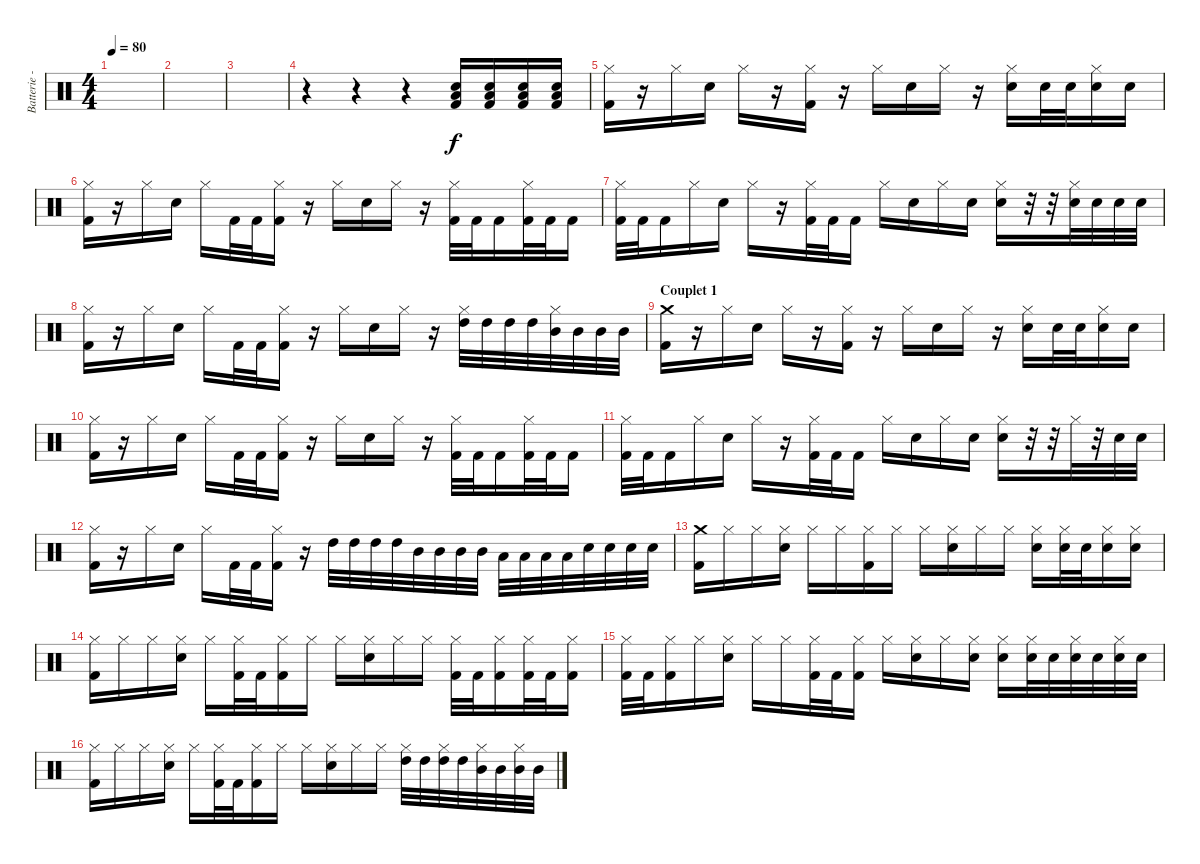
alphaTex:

\track ("Batterie - François" "Batterie -") {instrument percussion}
\staff {score}
\articulation defaults
\ts (4 4)
\tempo 80
\clef neutral
\ks c
|
|
|
r.4 r.4 r.4 ("Electric Snare (hit)" "Low Tom (hit)" "Kick (hit) 2").16 ("Electric Snare (hit)" "Low Tom (hit)" "Kick (hit) 2").16 ("Electric Snare (hit)" "Low Tom (hit)" "Kick (hit) 2").16 ("Electric Snare (hit)" "Low Tom (hit)" "Kick (hit) 2").16 |
("Hi-Hat (closed)" "Kick (hit) 2").16 r.16 "Hi-Hat (closed)".16 "Electric Snare (hit)".16 "Hi-Hat (closed)".16 r.16 ("Hi-Hat (closed)" "Kick (hit) 2").16 r.16 "Hi-Hat (closed)".16 "Electric Snare (hit)".16 "Hi-Hat (closed)".16 r.16 ("Hi-Hat (closed)" "Electric Snare (hit)").16 "Electric Snare (hit)".32 "Electric Snare (hit)".32 ("Hi-Hat (closed)" "Electric Snare (hit)").16 "Electric Snare (hit)".16 |
("Hi-Hat (closed)" "Kick (hit) 2").16 r.16 "Hi-Hat (closed)".16 "Electric Snare (hit)".16 "Hi-Hat (closed)".16 "Kick (hit) 2".32 "Kick (hit) 2".32 ("Hi-Hat (closed)" "Kick (hit) 2").16 r.16 "Hi-Hat (closed)".16 "Electric Snare (hit)".16 "Hi-Hat (closed)".16 r.16 ("Hi-Hat (closed)" "Kick (hit) 2").32 "Kick (hit) 2".32 "Kick (hit) 2".16 ("Hi-Hat (closed)" "Kick (hit) 2").32 "Kick (hit) 2".32 "Kick (hit) 2".16 |
("Hi-Hat (closed)" "Kick (hit) 2").32 "Kick (hit) 2".32 "Kick (hit) 2".16 "Hi-Hat (closed)".16 "Electric Snare (hit)".16 "Hi-Hat (closed)".16 r.16 ("Hi-Hat (closed)" "Kick (hit) 2").32 "Kick (hit) 2".32 "Kick (hit) 2".16 "Hi-Hat (closed)".16 "Electric Snare (hit)".16 "Hi-Hat (closed)".16 "Electric Snare (hit)".16 ("Hi-Hat (closed)" "Electric Snare (hit)").16 r.32 r.32 ("Hi-Hat (closed)" "Electric Snare (hit)").32 "Electric Snare (hit)".32 "Electric Snare (hit)".32 "Electric Snare (hit)".32 |
("Hi-Hat (closed)" "Kick (hit) 2").16 r.16 "Hi-Hat (closed)".16 "Electric Snare (hit)".16 "Hi-Hat (closed)".16 "Kick (hit) 2".32 "Kick (hit) 2".32 ("Hi-Hat (closed)" "Kick (hit) 2").16 r.16 "Hi-Hat (closed)".16 "Electric Snare (hit)".16 "Hi-Hat (closed)".16 r.16 ("Hi-Hat (closed)" "High Tom (hit)").32 "High Tom (hit)".32 "High Tom (hit)".32 "High Tom (hit)".32 ("Hi-Hat (closed)" "Mid Tom (hit)").32 "Mid Tom (hit)".32 "Mid Tom (hit)".32 "Mid Tom (hit)".32 |
\section ("" "Couplet 1")
("Crash medium (hit)" "Kick (hit) 2").16 r.16 "Hi-Hat (closed)".16 "Electric Snare (hit)".16 "Hi-Hat (closed)".16 r.16 ("Hi-Hat (closed)" "Kick (hit) 2").16 r.16 "Hi-Hat (closed)".16 "Electric Snare (hit)".16 "Hi-Hat (closed)".16 r.16 ("Hi-Hat (closed)" "Electric Snare (hit)").16 "Electric Snare (hit)".32 "Electric Snare (hit)".32 ("Hi-Hat (closed)" "Electric Snare (hit)").16 "Electric Snare (hit)".16 |
("Hi-Hat (closed)" "Kick (hit) 2").16 r.16 "Hi-Hat (closed)".16 "Electric Snare (hit)".16 "Hi-Hat (closed)".16 "Kick (hit) 2".32 "Kick (hit) 2".32 ("Hi-Hat (closed)" "Kick (hit) 2").16 r.16 "Hi-Hat (closed)".16 "Electric Snare (hit)".16 "Hi-Hat (closed)".16 r.16 ("Hi-Hat (closed)" "Kick (hit) 2").32 "Kick (hit) 2".32 "Kick (hit) 2".16 ("Hi-Hat (closed)" "Kick (hit) 2").32 "Kick (hit) 2".32 "Kick (hit) 2".16 |
("Hi-Hat (closed)" "Kick (hit) 2").32 "Kick (hit) 2".32 "Kick (hit) 2".16 "Hi-Hat (closed)".16 "Electric Snare (hit)".16 "Hi-Hat (closed)".16 r.16 ("Hi-Hat (closed)" "Kick (hit) 2").32 "Kick (hit) 2".32 "Kick (hit) 2".16 "Hi-Hat (closed)".16 "Electric Snare (hit)".16 "Hi-Hat (closed)".16 "Electric Snare (hit)".16 ("Hi-Hat (closed)" "Electric Snare (hit)").16 r.32 r.32 "Hi-Hat (closed)".32 r.32 "Electric Snare (hit)".32 "Electric Snare (hit)".32 |
("Hi-Hat (closed)" "Kick (hit) 2").16 r.16 "Hi-Hat (closed)".16 "Electric Snare (hit)".16 "Hi-Hat (closed)".16 "Kick (hit) 2".32 "Kick (hit) 2".32 ("Hi-Hat (closed)" "Kick (hit) 2").16 r.16 "High Tom (hit)".32 "High Tom (hit)".32 "High Tom (hit)".32 "High Tom (hit)".32 "Mid Tom (hit)".32 "Mid Tom (hit)".32 "Mid Tom (hit)".32 "Mid Tom (hit)".32 "Low Tom (hit)".32 "Low Tom (hit)".32 "Low Tom (hit)".32 "Low Tom (hit)".32 "Electric Snare (hit)".32 "Electric Snare (hit)".32 "Electric Snare (hit)".32 "Electric Snare (hit)".32 |
("Crash medium (hit)" "Kick (hit) 2").16 "Hi-Hat (closed)".16 "Hi-Hat (closed)".16 ("Hi-Hat (closed)" "Electric Snare (hit)").16 "Hi-Hat (closed)".16 "Hi-Hat (closed)".16 ("Hi-Hat (closed)" "Kick (hit) 2").16 "Hi-Hat (closed)".16 "Hi-Hat (closed)".16 ("Hi-Hat (closed)" "Electric Snare (hit)").16 "Hi-Hat (closed)".16 "Hi-Hat (closed)".16 ("Hi-Hat (closed)" "Electric Snare (hit)").16 ("Hi-Hat (closed)" "Electric Snare (hit)").32 "Electric Snare (hit)".32 ("Hi-Hat (closed)" "Electric Snare (hit)").16 ("Hi-Hat (closed)" "Electric Snare (hit)").16 |
("Hi-Hat (closed)" "Kick (hit) 2").16 "Hi-Hat (closed)".16 "Hi-Hat (closed)".16 ("Hi-Hat (closed)" "Electric Snare (hit)").16 "Hi-Hat (closed)".16 ("Hi-Hat (closed)" "Kick (hit) 2").32 "Kick (hit) 2".32 ("Hi-Hat (closed)" "Kick (hit) 2").16 "Hi-Hat (closed)".16 "Hi-Hat (closed)".16 ("Hi-Hat (closed)" "Electric Snare (hit)").16 "Hi-Hat (closed)".16 "Hi-Hat (closed)".16 ("Hi-Hat (closed)" "Kick (hit) 2").32 "Kick (hit) 2".32 ("Hi-Hat (closed)" "Kick (hit) 2").16 ("Hi-Hat (closed)" "Kick (hit) 2").32 "Kick (hit) 2".32 ("Hi-Hat (closed)" "Kick (hit) 2").16 |
("Hi-Hat (closed)" "Kick (hit) 2").32 "Kick (hit) 2".32 ("Hi-Hat (closed)" "Kick (hit) 2").16 "Hi-Hat (closed)".16 ("Hi-Hat (closed)" "Electric Snare (hit)").16 "Hi-Hat (closed)".16 "Hi-Hat (closed)".16 ("Hi-Hat (closed)" "Kick (hit) 2").32 "Kick (hit) 2".32 ("Hi-Hat (closed)" "Kick (hit) 2").16 "Hi-Hat (closed)".16 ("Hi-Hat (closed)" "Electric Snare (hit)").16 "Hi-Hat (closed)".16 ("Hi-Hat (closed)" "Electric Snare (hit)").16 ("Hi-Hat (closed)" "Electric Snare (hit)").16 ("Hi-Hat (closed)" "Electric Snare (hit)").32 "Electric Snare (hit)".32 ("Hi-Hat (closed)" "Electric Snare (hit)").32 "Electric Snare (hit)".32 ("Hi-Hat (closed)" "Electric Snare (hit)").32 "Electric Snare (hit)".32 |
("Hi-Hat (closed)" "Kick (hit) 2").16 "Hi-Hat (closed)".16 "Hi-Hat (closed)".16 ("Hi-Hat (closed)" "Electric Snare (hit)").16 "Hi-Hat (closed)".16 ("Hi-Hat (closed)" "Kick (hit) 2").32 "Kick (hit) 2".32 ("Hi-Hat (closed)" "Kick (hit) 2").16 "Hi-Hat (closed)".16 "Hi-Hat (closed)".16 ("Hi-Hat (closed)" "Electric Snare (hit)").16 "Hi-Hat (closed)".16 "Hi-Hat (closed)".16 ("Hi-Hat (closed)" "High Tom (hit)").32 "High Tom (hit)".32 ("Hi-Hat (closed)" "High Tom (hit)").32 "High Tom (hit)".32 ("Hi-Hat (closed)" "Mid Tom (hit)").32 "Mid Tom (hit)".32 ("Hi-Hat (closed)" "Mid Tom (hit)").32 "Mid Tom (hit)".32
